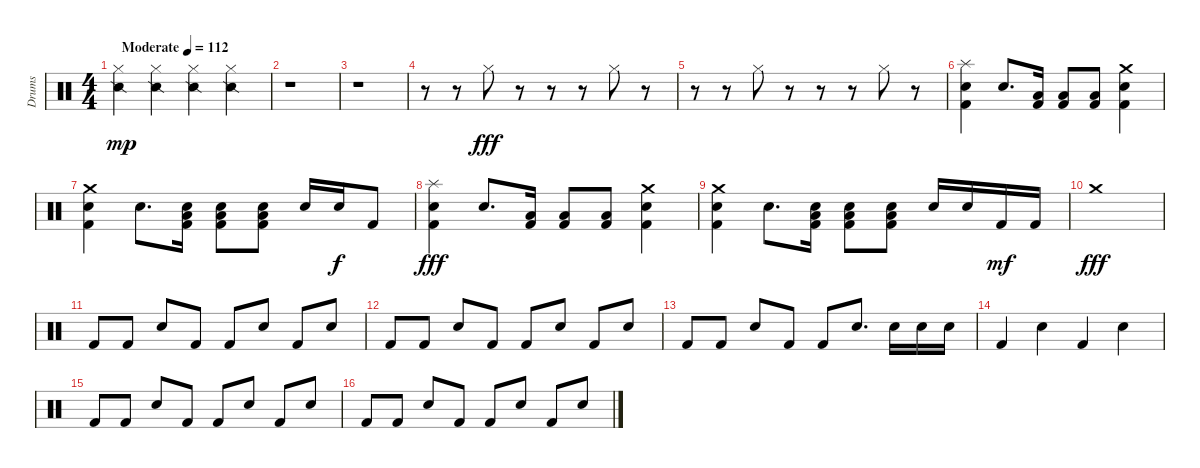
\track ("Drums" "Drums") {instrument percussion}
\staff {score}
\articulation defaults
\ts (4 4)
\tempo (112 "Moderate")
\clef neutral
\ks c
("Hi-Hat (closed)" "Snare (side stick) 2").4{dy mp} ("Hi-Hat (closed)" "Snare (side stick) 2").4 ("Hi-Hat (closed)" "Snare (side stick) 2").4 ("Hi-Hat (closed)" "Snare (side stick) 2").4 |
r.1 |
r.1 |
r.8 r.8 "Hi-Hat (closed)".8{dy fff} r.8 r.8 r.8 "Hi-Hat (closed)".8 r.8 |
r.8 r.8 "Hi-Hat (closed)".8 r.8 r.8 r.8 "Hi-Hat (closed)".8 r.8 |
("Splash (hit)" "Snare (hit) 2" "Kick (hit) 2").4 "Electric Snare (hit)".8{d} ("Kick (hit) 2" "Low Floor Tom (hit)").16 ("Kick (hit) 2" "Low Floor Tom (hit)").8 ("Kick (hit) 2" "Low Floor Tom (hit)").8 ("Crash medium (hit)" "Electric Snare (hit)" "Kick (hit) 2").4 |
("Crash medium (hit)" "Electric Snare (hit)" "Kick (hit) 2").4 "Electric Snare (hit)".8{d} ("Kick (hit) 2" "Snare (hit) 2" "Low Floor Tom (hit)").16 ("Kick (hit) 2" "Snare (hit) 2" "Low Floor Tom (hit)").8 ("Kick (hit) 2" "Snare (hit) 2" "Low Floor Tom (hit)").8 "Electric Snare (hit)".16 "Electric Snare (hit)".16{dy f} "Kick (hit) 2".8 |
("Splash (hit)" "Snare (hit) 2" "Kick (hit) 2").4{dy fff} "Electric Snare (hit)".8{d} ("Kick (hit) 2" "Low Floor Tom (hit)").16 ("Kick (hit) 2" "Low Floor Tom (hit)").8 ("Kick (hit) 2" "Low Floor Tom (hit)").8 ("Crash medium (hit)" "Electric Snare (hit)" "Kick (hit) 2").4 |
("Crash medium (hit)" "Electric Snare (hit)" "Kick (hit) 2").4 "Electric Snare (hit)".8{d} ("Kick (hit) 2" "Snare (hit) 2" "Low Floor Tom (hit)").16 ("Kick (hit) 2" "Snare (hit) 2" "Low Floor Tom (hit)").8 ("Kick (hit) 2" "Snare (hit) 2" "Low Floor Tom (hit)").8 "Electric Snare (hit)".16 "Electric Snare (hit)".16 "Kick (hit) 2".16{dy mf} "Kick (hit) 2".16 |
"Crash medium (hit)".1{dy fff} |
"Kick (hit) 2".8 "Kick (hit) 2".8 "Electric Snare (hit)".8 "Kick (hit) 2".8 "Kick (hit) 2".8 "Electric Snare (hit)".8 "Kick (hit) 2".8 "Electric Snare (hit)".8 |
"Kick (hit) 2".8 "Kick (hit) 2".8 "Electric Snare (hit)".8 "Kick (hit) 2".8 "Kick (hit) 2".8 "Electric Snare (hit)".8 "Kick (hit) 2".8 "Electric Snare (hit)".8 |
"Kick (hit) 2".8 "Kick (hit) 2".8 "Electric Snare (hit)".8 "Kick (hit) 2".8 "Kick (hit) 2".8 "Electric Snare (hit)".8{d} "Electric Snare (hit)".16 "Electric Snare (hit)".16 "Electric Snare (hit)".16 |
"Kick (hit) 2".4 "Electric Snare (hit)".4 "Kick (hit) 2".4 "Electric Snare (hit)".4 |
"Kick (hit) 2".8 "Kick (hit) 2".8 "Electric Snare (hit)".8 "Kick (hit) 2".8 "Kick (hit) 2".8 "Electric Snare (hit)".8 "Kick (hit) 2".8 "Electric Snare (hit)".8 |
"Kick (hit) 2".8 "Kick (hit) 2".8 "Electric Snare (hit)".8 "Kick (hit) 2".8 "Kick (hit) 2".8 "Electric Snare (hit)".8 "Kick (hit) 2".8 "Electric Snare (hit)".8
